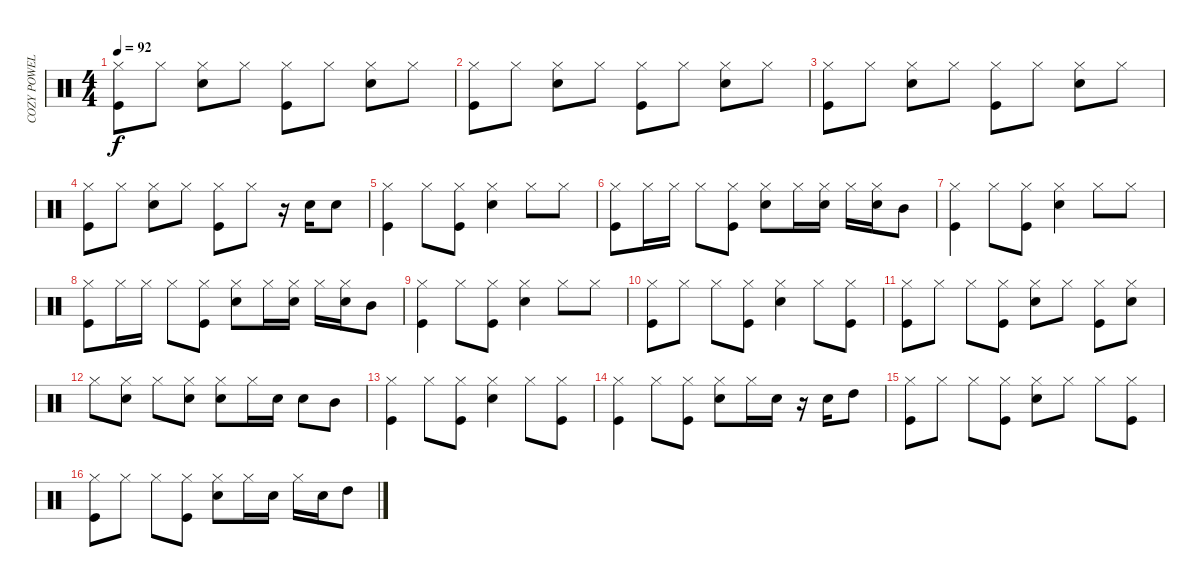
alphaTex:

\track ("COZY POWELL" "COZY POWEL") {instrument percussion}
\staff {score}
\articulation defaults
\ts (4 4)
\tempo 92
\clef neutral
\ks c
("Hi-Hat (closed)" "Kick (hit)").8{dy f} "Hi-Hat (closed)".8 ("Hi-Hat (closed)" "Snare (hit) 2").8 "Hi-Hat (closed)".8 ("Hi-Hat (closed)" "Kick (hit)").8 "Hi-Hat (closed)".8 ("Hi-Hat (closed)" "Snare (hit) 2").8 "Hi-Hat (closed)".8 |
("Hi-Hat (closed)" "Kick (hit)").8 "Hi-Hat (closed)".8 ("Hi-Hat (closed)" "Snare (hit) 2").8 "Hi-Hat (closed)".8 ("Hi-Hat (closed)" "Kick (hit)").8 "Hi-Hat (closed)".8 ("Hi-Hat (closed)" "Snare (hit) 2").8 "Hi-Hat (closed)".8 |
("Hi-Hat (closed)" "Kick (hit)").8 "Hi-Hat (closed)".8 ("Hi-Hat (closed)" "Snare (hit) 2").8 "Hi-Hat (closed)".8 ("Hi-Hat (closed)" "Kick (hit)").8 "Hi-Hat (closed)".8 ("Hi-Hat (closed)" "Snare (hit) 2").8 "Hi-Hat (closed)".8 |
("Hi-Hat (closed)" "Kick (hit)").8 "Hi-Hat (closed)".8 ("Hi-Hat (closed)" "Snare (hit) 2").8 "Hi-Hat (closed)".8 ("Hi-Hat (closed)" "Kick (hit)").8 "Hi-Hat (closed)".8 r.16 "Snare (hit) 2".16 "Snare (hit) 2".8 |
("Hi-Hat (closed)" "Kick (hit)").4 "Hi-Hat (closed)".8 ("Hi-Hat (closed)" "Kick (hit)").8 ("Hi-Hat (closed)" "Snare (hit) 2").4 "Hi-Hat (closed)".8 "Hi-Hat (closed)".8 |
("Hi-Hat (closed)" "Kick (hit)").8 "Hi-Hat (closed)".16 "Hi-Hat (closed)".16 "Hi-Hat (closed)".8 ("Hi-Hat (closed)" "Kick (hit)").8 ("Hi-Hat (closed)" "Snare (hit) 2").8 "Hi-Hat (closed)".16 ("Hi-Hat (closed)" "Snare (hit) 2").16 "Hi-Hat (closed)".16 ("Hi-Hat (closed)" "Snare (hit) 2").16 "Mid Tom (hit)".8 |
("Hi-Hat (closed)" "Kick (hit)").4 "Hi-Hat (closed)".8 ("Hi-Hat (closed)" "Kick (hit)").8 ("Hi-Hat (closed)" "Snare (hit) 2").4 "Hi-Hat (closed)".8 "Hi-Hat (closed)".8 |
("Hi-Hat (closed)" "Kick (hit)").8 "Hi-Hat (closed)".16 "Hi-Hat (closed)".16 "Hi-Hat (closed)".8 ("Hi-Hat (closed)" "Kick (hit)").8 ("Hi-Hat (closed)" "Snare (hit) 2").8 "Hi-Hat (closed)".16 ("Hi-Hat (closed)" "Snare (hit) 2").16 "Hi-Hat (closed)".16 ("Hi-Hat (closed)" "Snare (hit) 2").16 "Mid Tom (hit)".8 |
("Hi-Hat (closed)" "Kick (hit)").4 "Hi-Hat (closed)".8 ("Hi-Hat (closed)" "Kick (hit)").8 ("Hi-Hat (closed)" "Snare (hit) 2").4 "Hi-Hat (closed)".8 "Hi-Hat (closed)".8 |
("Hi-Hat (closed)" "Kick (hit)").8 "Hi-Hat (closed)".8 "Hi-Hat (closed)".8 ("Hi-Hat (closed)" "Kick (hit)").8 ("Hi-Hat (closed)" "Snare (hit) 2").4 "Hi-Hat (closed)".8 ("Hi-Hat (closed)" "Kick (hit)").8 |
("Hi-Hat (closed)" "Kick (hit)").8 "Hi-Hat (closed)".8 "Hi-Hat (closed)".8 ("Hi-Hat (closed)" "Kick (hit)").8 ("Hi-Hat (closed)" "Snare (hit) 2").8 "Hi-Hat (closed)".8 ("Hi-Hat (closed)" "Kick (hit)").8 ("Hi-Hat (closed)" "Snare (hit) 2").8 |
"Hi-Hat (closed)".8 ("Hi-Hat (closed)" "Snare (hit) 2").8 "Hi-Hat (closed)".8 ("Hi-Hat (closed)" "Snare (hit) 2").8 ("Hi-Hat (closed)" "Snare (hit) 2").8 "Hi-Hat (closed)".16 "Snare (hit) 2".16 "Snare (hit) 2".8 "Mid Tom (hit)".8 |
("Hi-Hat (closed)" "Kick (hit)").4 "Hi-Hat (closed)".8 ("Hi-Hat (closed)" "Kick (hit)").8 ("Hi-Hat (closed)" "Snare (hit) 2").4 "Hi-Hat (closed)".8 ("Hi-Hat (closed)" "Kick (hit)").8 |
("Hi-Hat (closed)" "Kick (hit)").4 "Hi-Hat (closed)".8 ("Hi-Hat (closed)" "Kick (hit)").8 ("Hi-Hat (closed)" "Snare (hit) 2").8 "Hi-Hat (closed)".16 "Snare (hit) 2".16 r.16 "Snare (hit) 2".16 "High Tom (hit)".8 |
("Hi-Hat (closed)" "Kick (hit)").8 "Hi-Hat (closed)".8 "Hi-Hat (closed)".8 ("Hi-Hat (closed)" "Kick (hit)").8 ("Hi-Hat (closed)" "Snare (hit) 2").8 "Hi-Hat (closed)".8 "Hi-Hat (closed)".8 ("Hi-Hat (closed)" "Kick (hit)").8 |
("Hi-Hat (closed)" "Kick (hit)").8 "Hi-Hat (closed)".8 "Hi-Hat (closed)".8 ("Hi-Hat (closed)" "Kick (hit)").8 ("Hi-Hat (closed)" "Snare (hit) 2").8 "Hi-Hat (closed)".16 "Snare (hit) 2".16 "Hi-Hat (closed)".16 "Snare (hit) 2".16 "High Tom (hit)".8
